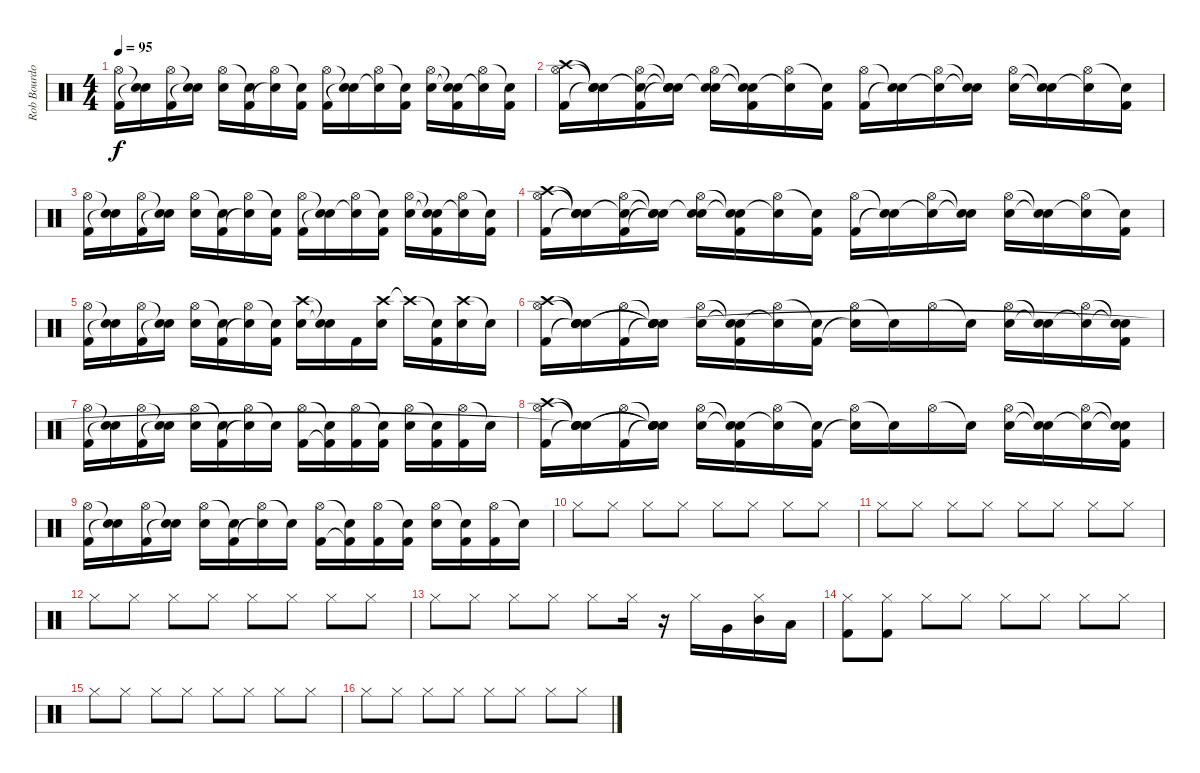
\track ("Rob Bourdon" "Rob Bourdo") {instrument percussion}
\staff {score}
\articulation defaults
\ts (4 4)
\tempo 95
\clef neutral
\ks c
("Hi-Hat (open)" "Kick (hit) 2").16{dy f} ("Snare (hit)"{t} "Snare (hit)"{t}).16 ("Hi-Hat (open)" "Kick (hit) 2").16 ("Snare (hit)"{t} "Snare (hit)"{t}).16 ("Hi-Hat (open)" "Snare (hit) 2").16 ("Snare (hit)"{t} "Kick (hit) 2").16 ("Hi-Hat (open)" "Snare (hit)"{t}).16 ("Snare (hit)"{t} "Kick (hit) 2").16 ("Hi-Hat (open)" "Kick (hit) 2").16 ("Snare (hit)"{t} "Snare (hit)"{t}).16 ("Hi-Hat (open)" "Snare (hit)"{t}).16 ("Snare (hit)"{t} "Kick (hit) 2").16 ("Hi-Hat (open)" "Snare (hit) 2").16 ("Snare (hit)"{t} "Snare (hit)"{t} "Kick (hit) 2").16 ("Hi-Hat (open)" "Snare (hit)"{t}).16 ("Snare (hit)"{t} "Kick (hit) 2").16 |
("Crash high (hit)" "Hi-Hat (open)" "Kick (hit) 2").16 ("Snare (hit)"{t} "Snare (hit)"{t} "Snare (hit)"{t}).16 ("Snare (hit)"{t} "Hi-Hat (open)" "Kick (hit) 2").16 ("Snare (hit)"{t} "Snare (hit)"{t} "Snare (hit)"{t}).16 ("Snare (hit)"{t} "Hi-Hat (open)" "Snare (hit) 2").16 ("Snare (hit)"{t} "Snare (hit)"{t} "Kick (hit) 2").16 ("Hi-Hat (open)" "Snare (hit)"{t}).16 ("Snare (hit)"{t} "Kick (hit) 2").16 ("Hi-Hat (open)" "Kick (hit) 2").16 ("Snare (hit)"{t} "Snare (hit)"{t}).16 ("Hi-Hat (open)" "Snare (hit)"{t}).16 ("Snare (hit)"{t} "Snare (hit)"{t}).16 ("Hi-Hat (open)" "Snare (hit) 2").16 ("Snare (hit)"{t} "Snare (hit)"{t}).16 ("Hi-Hat (open)" "Snare (hit)"{t}).16 ("Snare (hit)"{t} "Kick (hit) 2").16 |
("Hi-Hat (open)" "Kick (hit) 2").16 ("Snare (hit)"{t} "Snare (hit)"{t}).16 ("Hi-Hat (open)" "Kick (hit) 2").16 ("Snare (hit)"{t} "Snare (hit)"{t}).16 ("Hi-Hat (open)" "Snare (hit) 2").16 ("Snare (hit)"{t} "Kick (hit) 2").16 ("Hi-Hat (open)" "Snare (hit)"{t}).16 ("Snare (hit)"{t} "Kick (hit) 2").16 ("Hi-Hat (open)" "Kick (hit) 2").16 ("Snare (hit)"{t} "Snare (hit)"{t}).16 ("Hi-Hat (open)" "Snare (hit)"{t}).16 ("Snare (hit)"{t} "Kick (hit) 2").16 ("Hi-Hat (open)" "Snare (hit) 2").16 ("Snare (hit)"{t} "Snare (hit)"{t} "Kick (hit) 2").16 ("Hi-Hat (open)" "Snare (hit)"{t}).16 ("Snare (hit)"{t} "Kick (hit) 2").16 |
("Crash high (hit)" "Hi-Hat (open)" "Kick (hit) 2").16 ("Snare (hit)"{t} "Snare (hit)"{t} "Snare (hit)"{t}).16 ("Snare (hit)"{t} "Hi-Hat (open)" "Kick (hit) 2").16 ("Snare (hit)"{t} "Snare (hit)"{t} "Snare (hit)"{t}).16 ("Snare (hit)"{t} "Hi-Hat (open)" "Snare (hit) 2").16 ("Snare (hit)"{t} "Snare (hit)"{t} "Kick (hit) 2").16 ("Hi-Hat (open)" "Snare (hit)"{t}).16 ("Snare (hit)"{t} "Kick (hit) 2").16 ("Hi-Hat (open)" "Kick (hit) 2").16 ("Snare (hit)"{t} "Snare (hit)"{t}).16 ("Hi-Hat (open)" "Snare (hit)"{t}).16 ("Snare (hit)"{t} "Snare (hit)"{t}).16 ("Hi-Hat (open)" "Snare (hit) 2").16 ("Snare (hit)"{t} "Snare (hit)"{t}).16 ("Hi-Hat (open)" "Snare (hit)"{t}).16 ("Snare (hit)"{t} "Kick (hit) 2").16 |
("Hi-Hat (open)" "Kick (hit) 2").16 ("Snare (hit)"{t} "Snare (hit)"{t}).16 ("Hi-Hat (open)" "Kick (hit) 2").16 ("Snare (hit)"{t} "Snare (hit)"{t}).16 ("Hi-Hat (open)" "Snare (hit) 2").16 ("Snare (hit)"{t} "Kick (hit) 2").16 ("Hi-Hat (open)" "Snare (hit)"{t}).16 ("Snare (hit)"{t} "Kick (hit) 2").16 ("Crash high (hit)" "Snare (hit) 2").16 ("Snare (hit)"{t} "Snare (hit)"{t}).16 "Kick (hit) 2".16 ("Crash high (hit)" "Snare (hit) 2").16 "Crash high (hit)"{t}.16 ("Snare (hit)"{t} "Kick (hit) 2").16 ("Crash high (hit)" "Snare (hit) 2").16 "Snare (hit)"{t}.16 |
("Crash high (hit)" "Hi-Hat (open)" "Kick (hit) 2").16 ("Snare (hit)"{t} "Snare (hit)"{t} "Snare (hit)"{t} "Snare (hit)").16 ("Hi-Hat (open)" "Kick (hit) 2").16 ("Snare (hit)"{t} "Snare (hit)"{t} "Snare (hit)"{t} "Snare (hit)"{t}).16 ("Hi-Hat (open)" "Snare (hit) 2").16 ("Snare (hit)"{t} "Snare (hit)"{t} "Kick (hit) 2").16 ("Hi-Hat (open)" "Snare (hit)"{t}).16 ("Snare (hit)"{t} "Kick (hit) 2").16 ("Hi-Hat (open)" "Snare (hit)"{t}).16 "Snare (hit)"{t}.16 "Hi-Hat (open)".16 "Snare (hit)"{t}.16 ("Hi-Hat (open)" "Snare (hit) 2").16 ("Snare (hit)"{t} "Snare (hit)"{t}).16 ("Hi-Hat (open)" "Snare (hit)"{t}).16 ("Snare (hit)"{t} "Snare (hit)"{t} "Kick (hit) 2").16 |
("Hi-Hat (open)" "Kick (hit) 2").16 ("Snare (hit)"{t} "Snare (hit)"{t}).16 ("Hi-Hat (open)" "Kick (hit) 2").16 ("Snare (hit)"{t} "Snare (hit)"{t}).16 ("Hi-Hat (open)" "Snare (hit) 2").16 ("Snare (hit)"{t} "Kick (hit) 2").16 ("Hi-Hat (open)" "Snare (hit)"{t}).16 "Snare (hit)"{t}.16 ("Hi-Hat (open)" "Kick (hit) 2").16 ("Snare (hit)"{t} "Kick (hit) 2"{t}).16 ("Hi-Hat (open)" "Kick (hit) 2").16 ("Snare (hit)"{t} "Kick (hit) 2").16 ("Hi-Hat (open)" "Snare (hit) 2").16 ("Snare (hit)"{t} "Kick (hit) 2").16 ("Hi-Hat (open)" "Kick (hit) 2").16 "Snare (hit)"{t}.16 |
("Crash high (hit)" "Hi-Hat (open)" "Kick (hit) 2").16 ("Snare (hit)"{t} "Snare (hit)"{t} "Snare (hit)"{t} "Snare (hit)"{t}).16 ("Hi-Hat (open)" "Kick (hit) 2").16 ("Snare (hit)"{t} "Snare (hit)"{t} "Snare (hit)"{t} "Snare (hit)"{t}).16 ("Hi-Hat (open)" "Snare (hit) 2").16 ("Snare (hit)"{t} "Snare (hit)"{t} "Kick (hit) 2").16 ("Hi-Hat (open)" "Snare (hit)"{t}).16 ("Snare (hit)"{t} "Kick (hit) 2").16 ("Hi-Hat (open)" "Snare (hit)"{t}).16 "Snare (hit)"{t}.16 "Hi-Hat (open)".16 "Snare (hit)"{t}.16 ("Hi-Hat (open)" "Snare (hit) 2").16 ("Snare (hit)"{t} "Snare (hit)"{t}).16 ("Hi-Hat (open)" "Snare (hit)"{t}).16 ("Snare (hit)"{t} "Snare (hit)"{t} "Kick (hit) 2").16 |
("Hi-Hat (open)" "Kick (hit) 2").16 ("Snare (hit)"{t} "Snare (hit)"{t}).16 ("Hi-Hat (open)" "Kick (hit) 2").16 ("Snare (hit)"{t} "Snare (hit)"{t}).16 ("Hi-Hat (open)" "Snare (hit) 2").16 ("Snare (hit)"{t} "Kick (hit) 2").16 ("Hi-Hat (open)" "Snare (hit)"{t}).16 "Snare (hit)"{t}.16 ("Hi-Hat (open)" "Kick (hit) 2").16 ("Snare (hit)"{t} "Kick (hit) 2"{t}).16 ("Hi-Hat (open)" "Kick (hit) 2").16 ("Snare (hit)"{t} "Kick (hit) 2").16 ("Hi-Hat (open)" "Snare (hit) 2").16 ("Snare (hit)"{t} "Kick (hit) 2").16 ("Hi-Hat (open)" "Kick (hit) 2").16 "Snare (hit)"{t}.16 |
"Hi-Hat (closed)".8 "Hi-Hat (closed)".8 "Hi-Hat (closed)".8 "Hi-Hat (closed)".8 "Hi-Hat (closed)".8 "Hi-Hat (closed)".8 "Hi-Hat (closed)".8 "Hi-Hat (closed)".8 |
"Hi-Hat (closed)".8 "Hi-Hat (closed)".8 "Hi-Hat (closed)".8 "Hi-Hat (closed)".8 "Hi-Hat (closed)".8 "Hi-Hat (closed)".8 "Hi-Hat (closed)".8 "Hi-Hat (closed)".8 |
"Hi-Hat (closed)".8 "Hi-Hat (closed)".8 "Hi-Hat (closed)".8 "Hi-Hat (closed)".8 "Hi-Hat (closed)".8 "Hi-Hat (closed)".8 "Hi-Hat (closed)".8 "Hi-Hat (closed)".8 |
"Hi-Hat (closed)".8 "Hi-Hat (closed)".8 "Hi-Hat (closed)".8 "Hi-Hat (closed)".8 "Hi-Hat (closed)".8 "Hi-Hat (closed)".16 r.16 "Hi-Hat (closed)".16 "Very Low Tom (hit)".16 ("Hi-Hat (closed)" "Mid Tom (hit)").16 "Low Tom (hit)".16 |
("Hi-Hat (closed)" "Kick (hit) 2").8 ("Hi-Hat (closed)" "Kick (hit) 2").8 "Hi-Hat (closed)".8 "Hi-Hat (closed)".8 "Hi-Hat (closed)".8 "Hi-Hat (closed)".8 "Hi-Hat (closed)".8 "Hi-Hat (closed)".8 |
"Hi-Hat (closed)".8 "Hi-Hat (closed)".8 "Hi-Hat (closed)".8 "Hi-Hat (closed)".8 "Hi-Hat (closed)".8 "Hi-Hat (closed)".8 "Hi-Hat (closed)".8 "Hi-Hat (closed)".8 |
"Hi-Hat (closed)".8 "Hi-Hat (closed)".8 "Hi-Hat (closed)".8 "Hi-Hat (closed)".8 "Hi-Hat (closed)".8 "Hi-Hat (closed)".8 "Hi-Hat (closed)".8 "Hi-Hat (closed)".8
